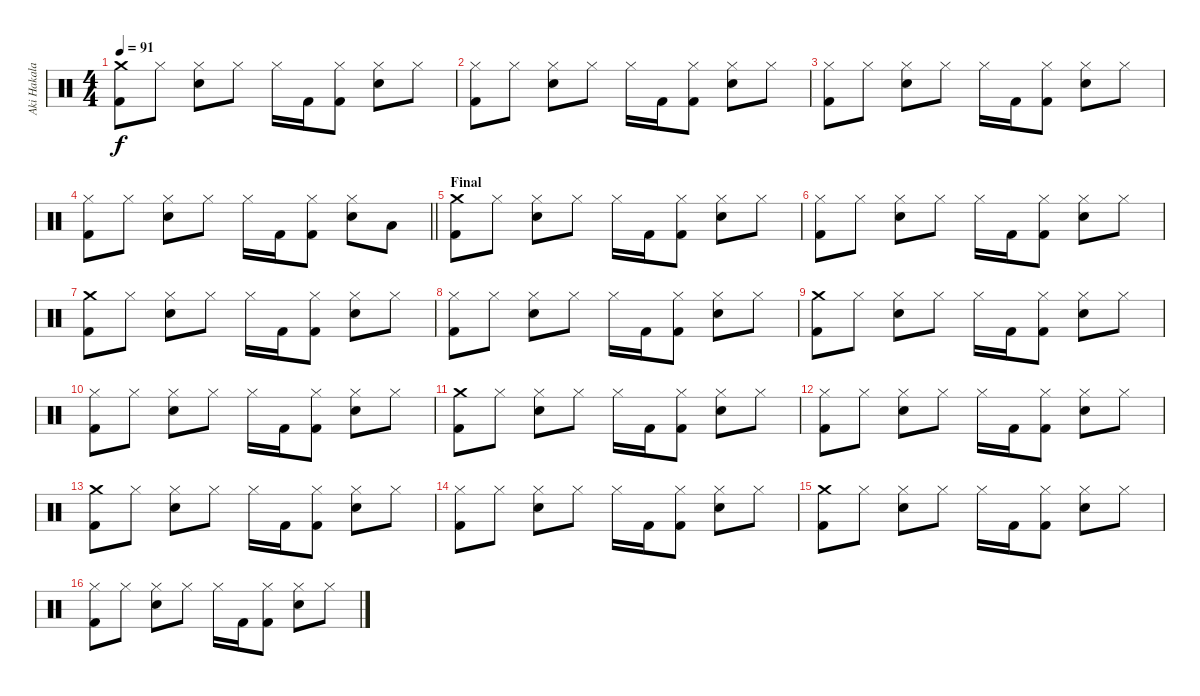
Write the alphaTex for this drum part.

\track ("Aki Hakala" "Aki Hakala") {instrument percussion}
\staff {score}
\articulation defaults
\ts (4 4)
\tempo 91
\clef neutral
\ks c
("Crash medium (hit)" "Kick (hit) 2").8{dy f} "Hi-Hat (closed)".8 ("Hi-Hat (closed)" "Electric Snare (hit)").8 "Hi-Hat (closed)".8 "Hi-Hat (closed)".16 "Kick (hit) 2".16 ("Hi-Hat (closed)" "Kick (hit) 2").8 ("Hi-Hat (closed)" "Electric Snare (hit)").8 "Hi-Hat (closed)".8 |
("Hi-Hat (closed)" "Kick (hit) 2").8 "Hi-Hat (closed)".8 ("Hi-Hat (closed)" "Electric Snare (hit)").8 "Hi-Hat (closed)".8 "Hi-Hat (closed)".16 "Kick (hit) 2".16 ("Hi-Hat (closed)" "Kick (hit) 2").8 ("Hi-Hat (closed)" "Electric Snare (hit)").8 "Hi-Hat (closed)".8 |
("Hi-Hat (closed)" "Kick (hit) 2").8 "Hi-Hat (closed)".8 ("Hi-Hat (closed)" "Electric Snare (hit)").8 "Hi-Hat (closed)".8 "Hi-Hat (closed)".16 "Kick (hit) 2".16 ("Hi-Hat (closed)" "Kick (hit) 2").8 ("Hi-Hat (closed)" "Electric Snare (hit)").8 "Hi-Hat (closed)".8 |
\barLineRight lightlight
("Hi-Hat (closed)" "Kick (hit) 2").8 "Hi-Hat (closed)".8 ("Hi-Hat (closed)" "Electric Snare (hit)").8 "Hi-Hat (closed)".8 "Hi-Hat (closed)".16 "Kick (hit) 2".16 ("Hi-Hat (closed)" "Kick (hit) 2").8 ("Hi-Hat (closed)" "Electric Snare (hit)").8 "Low Tom (hit)".8 |
\section ("" "Final")
("Crash medium (hit)" "Kick (hit) 2").8 "Hi-Hat (closed)".8 ("Hi-Hat (closed)" "Electric Snare (hit)").8 "Hi-Hat (closed)".8 "Hi-Hat (closed)".16 "Kick (hit) 2".16 ("Hi-Hat (closed)" "Kick (hit) 2").8 ("Hi-Hat (closed)" "Electric Snare (hit)").8 "Hi-Hat (closed)".8 |
("Hi-Hat (closed)" "Kick (hit) 2").8 "Hi-Hat (closed)".8 ("Hi-Hat (closed)" "Electric Snare (hit)").8 "Hi-Hat (closed)".8 "Hi-Hat (closed)".16 "Kick (hit) 2".16 ("Hi-Hat (closed)" "Kick (hit) 2").8 ("Hi-Hat (closed)" "Electric Snare (hit)").8 "Hi-Hat (closed)".8 |
("Crash medium (hit)" "Kick (hit) 2").8 "Hi-Hat (closed)".8 ("Hi-Hat (closed)" "Electric Snare (hit)").8 "Hi-Hat (closed)".8 "Hi-Hat (closed)".16 "Kick (hit) 2".16 ("Hi-Hat (closed)" "Kick (hit) 2").8 ("Hi-Hat (closed)" "Electric Snare (hit)").8 "Hi-Hat (closed)".8 |
("Hi-Hat (closed)" "Kick (hit) 2").8 "Hi-Hat (closed)".8 ("Hi-Hat (closed)" "Electric Snare (hit)").8 "Hi-Hat (closed)".8 "Hi-Hat (closed)".16 "Kick (hit) 2".16 ("Hi-Hat (closed)" "Kick (hit) 2").8 ("Hi-Hat (closed)" "Electric Snare (hit)").8 "Hi-Hat (closed)".8 |
("Crash medium (hit)" "Kick (hit) 2").8 "Hi-Hat (closed)".8 ("Hi-Hat (closed)" "Electric Snare (hit)").8 "Hi-Hat (closed)".8 "Hi-Hat (closed)".16 "Kick (hit) 2".16 ("Hi-Hat (closed)" "Kick (hit) 2").8 ("Hi-Hat (closed)" "Electric Snare (hit)").8 "Hi-Hat (closed)".8 |
("Hi-Hat (closed)" "Kick (hit) 2").8 "Hi-Hat (closed)".8 ("Hi-Hat (closed)" "Electric Snare (hit)").8 "Hi-Hat (closed)".8 "Hi-Hat (closed)".16 "Kick (hit) 2".16 ("Hi-Hat (closed)" "Kick (hit) 2").8 ("Hi-Hat (closed)" "Electric Snare (hit)").8 "Hi-Hat (closed)".8 |
("Crash medium (hit)" "Kick (hit) 2").8 "Hi-Hat (closed)".8 ("Hi-Hat (closed)" "Electric Snare (hit)").8 "Hi-Hat (closed)".8 "Hi-Hat (closed)".16 "Kick (hit) 2".16 ("Hi-Hat (closed)" "Kick (hit) 2").8 ("Hi-Hat (closed)" "Electric Snare (hit)").8 "Hi-Hat (closed)".8 |
("Hi-Hat (closed)" "Kick (hit) 2").8 "Hi-Hat (closed)".8 ("Hi-Hat (closed)" "Electric Snare (hit)").8 "Hi-Hat (closed)".8 "Hi-Hat (closed)".16 "Kick (hit) 2".16 ("Hi-Hat (closed)" "Kick (hit) 2").8 ("Hi-Hat (closed)" "Electric Snare (hit)").8 "Hi-Hat (closed)".8 |
("Crash medium (hit)" "Kick (hit) 2").8 "Hi-Hat (closed)".8 ("Hi-Hat (closed)" "Electric Snare (hit)").8 "Hi-Hat (closed)".8 "Hi-Hat (closed)".16 "Kick (hit) 2".16 ("Hi-Hat (closed)" "Kick (hit) 2").8 ("Hi-Hat (closed)" "Electric Snare (hit)").8 "Hi-Hat (closed)".8 |
("Hi-Hat (closed)" "Kick (hit) 2").8 "Hi-Hat (closed)".8 ("Hi-Hat (closed)" "Electric Snare (hit)").8 "Hi-Hat (closed)".8 "Hi-Hat (closed)".16 "Kick (hit) 2".16 ("Hi-Hat (closed)" "Kick (hit) 2").8 ("Hi-Hat (closed)" "Electric Snare (hit)").8 "Hi-Hat (closed)".8 |
("Crash medium (hit)" "Kick (hit) 2").8 "Hi-Hat (closed)".8 ("Hi-Hat (closed)" "Electric Snare (hit)").8 "Hi-Hat (closed)".8 "Hi-Hat (closed)".16 "Kick (hit) 2".16 ("Hi-Hat (closed)" "Kick (hit) 2").8 ("Hi-Hat (closed)" "Electric Snare (hit)").8 "Hi-Hat (closed)".8 |
("Hi-Hat (closed)" "Kick (hit) 2").8 "Hi-Hat (closed)".8 ("Hi-Hat (closed)" "Electric Snare (hit)").8 "Hi-Hat (closed)".8 "Hi-Hat (closed)".16 "Kick (hit) 2".16 ("Hi-Hat (closed)" "Kick (hit) 2").8 ("Hi-Hat (closed)" "Electric Snare (hit)").8 "Hi-Hat (closed)".8
